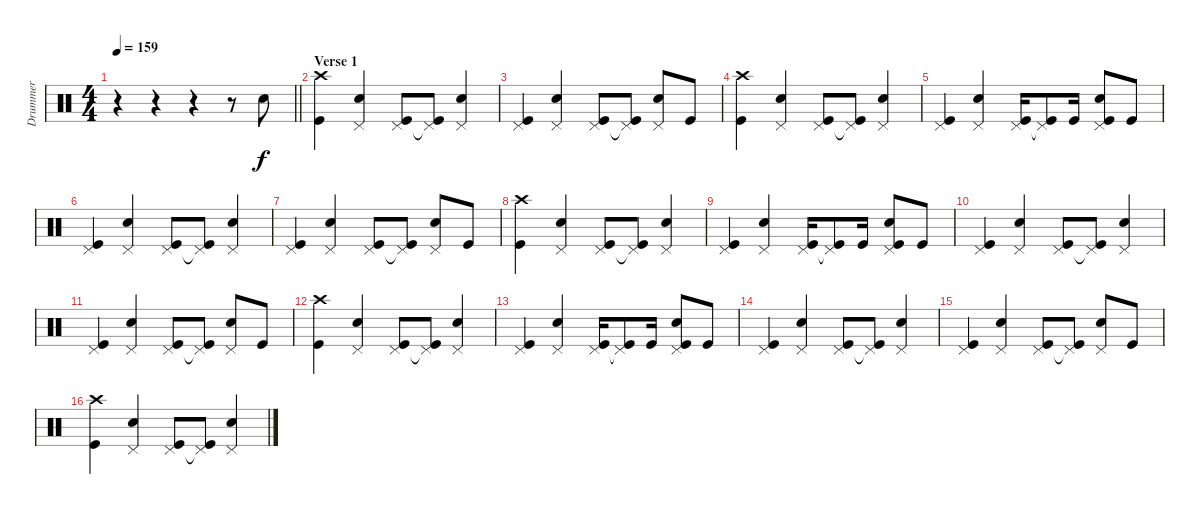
\track ("Drummer" "Drummer") {instrument percussion}
\staff {score}
\articulation defaults
\ts (4 4)
\tempo 159
\clef neutral
\barLineRight lightlight
\ks c
r.4{dy f} r.4 r.4 r.8 "Electric Snare (hit)".8 |
\section ("" "Verse 1")
("Kick (hit)" "Crash high (hit)").4 ("Pedal Hi-Hat (hit)" "Snare (hit) 2").4 ("Kick (hit)" "Pedal Hi-Hat (hit)").8 ("Kick (hit)" "Pedal Hi-Hat (hit)"{t}).8 ("Pedal Hi-Hat (hit)" "Snare (hit) 2").4 |
("Kick (hit)" "Pedal Hi-Hat (hit)").4 ("Pedal Hi-Hat (hit)" "Snare (hit) 2").4 ("Kick (hit)" "Pedal Hi-Hat (hit)").8 ("Kick (hit)" "Pedal Hi-Hat (hit)"{t}).8 ("Pedal Hi-Hat (hit)" "Snare (hit) 2").8 "Kick (hit)".8 |
("Kick (hit)" "Crash high (hit)").4 ("Pedal Hi-Hat (hit)" "Snare (hit) 2").4 ("Kick (hit)" "Pedal Hi-Hat (hit)").8 ("Kick (hit)" "Pedal Hi-Hat (hit)"{t}).8 ("Pedal Hi-Hat (hit)" "Snare (hit) 2").4 |
("Kick (hit)" "Pedal Hi-Hat (hit)").4 ("Pedal Hi-Hat (hit)" "Snare (hit) 2").4 ("Kick (hit)" "Pedal Hi-Hat (hit)").16 ("Kick (hit)" "Pedal Hi-Hat (hit)"{t}).8 "Kick (hit)".16 ("Kick (hit)" "Pedal Hi-Hat (hit)" "Snare (hit) 2").8 "Kick (hit)".8 |
("Kick (hit)" "Pedal Hi-Hat (hit)").4 ("Pedal Hi-Hat (hit)" "Snare (hit) 2").4 ("Kick (hit)" "Pedal Hi-Hat (hit)").8 ("Kick (hit)" "Pedal Hi-Hat (hit)"{t}).8 ("Pedal Hi-Hat (hit)" "Snare (hit) 2").4 |
("Kick (hit)" "Pedal Hi-Hat (hit)").4 ("Pedal Hi-Hat (hit)" "Snare (hit) 2").4 ("Kick (hit)" "Pedal Hi-Hat (hit)").8 ("Kick (hit)" "Pedal Hi-Hat (hit)"{t}).8 ("Pedal Hi-Hat (hit)" "Snare (hit) 2").8 "Kick (hit)".8 |
("Kick (hit)" "Crash high (hit)").4 ("Pedal Hi-Hat (hit)" "Snare (hit) 2").4 ("Kick (hit)" "Pedal Hi-Hat (hit)").8 ("Kick (hit)" "Pedal Hi-Hat (hit)"{t}).8 ("Pedal Hi-Hat (hit)" "Snare (hit) 2").4 |
("Kick (hit)" "Pedal Hi-Hat (hit)").4 ("Pedal Hi-Hat (hit)" "Snare (hit) 2").4 ("Kick (hit)" "Pedal Hi-Hat (hit)").16 ("Kick (hit)" "Pedal Hi-Hat (hit)"{t}).8 "Kick (hit)".16 ("Kick (hit)" "Pedal Hi-Hat (hit)" "Snare (hit) 2").8 "Kick (hit)".8 |
("Kick (hit)" "Pedal Hi-Hat (hit)").4 ("Pedal Hi-Hat (hit)" "Snare (hit) 2").4 ("Kick (hit)" "Pedal Hi-Hat (hit)").8 ("Kick (hit)" "Pedal Hi-Hat (hit)"{t}).8 ("Pedal Hi-Hat (hit)" "Snare (hit) 2").4 |
("Kick (hit)" "Pedal Hi-Hat (hit)").4 ("Pedal Hi-Hat (hit)" "Snare (hit) 2").4 ("Kick (hit)" "Pedal Hi-Hat (hit)").8 ("Kick (hit)" "Pedal Hi-Hat (hit)"{t}).8 ("Pedal Hi-Hat (hit)" "Snare (hit) 2").8 "Kick (hit)".8 |
("Kick (hit)" "Crash high (hit)").4 ("Pedal Hi-Hat (hit)" "Snare (hit) 2").4 ("Kick (hit)" "Pedal Hi-Hat (hit)").8 ("Kick (hit)" "Pedal Hi-Hat (hit)"{t}).8 ("Pedal Hi-Hat (hit)" "Snare (hit) 2").4 |
("Kick (hit)" "Pedal Hi-Hat (hit)").4 ("Pedal Hi-Hat (hit)" "Snare (hit) 2").4 ("Kick (hit)" "Pedal Hi-Hat (hit)").16 ("Kick (hit)" "Pedal Hi-Hat (hit)"{t}).8 "Kick (hit)".16 ("Kick (hit)" "Pedal Hi-Hat (hit)" "Snare (hit) 2").8 "Kick (hit)".8 |
("Kick (hit)" "Pedal Hi-Hat (hit)").4 ("Pedal Hi-Hat (hit)" "Snare (hit) 2").4 ("Kick (hit)" "Pedal Hi-Hat (hit)").8 ("Kick (hit)" "Pedal Hi-Hat (hit)"{t}).8 ("Pedal Hi-Hat (hit)" "Snare (hit) 2").4 |
("Kick (hit)" "Pedal Hi-Hat (hit)").4 ("Pedal Hi-Hat (hit)" "Snare (hit) 2").4 ("Kick (hit)" "Pedal Hi-Hat (hit)").8 ("Kick (hit)" "Pedal Hi-Hat (hit)"{t}).8 ("Pedal Hi-Hat (hit)" "Snare (hit) 2").8 "Kick (hit)".8 |
("Kick (hit)" "Crash high (hit)").4 ("Pedal Hi-Hat (hit)" "Snare (hit) 2").4 ("Kick (hit)" "Pedal Hi-Hat (hit)").8 ("Kick (hit)" "Pedal Hi-Hat (hit)"{t}).8 ("Pedal Hi-Hat (hit)" "Snare (hit) 2").4
